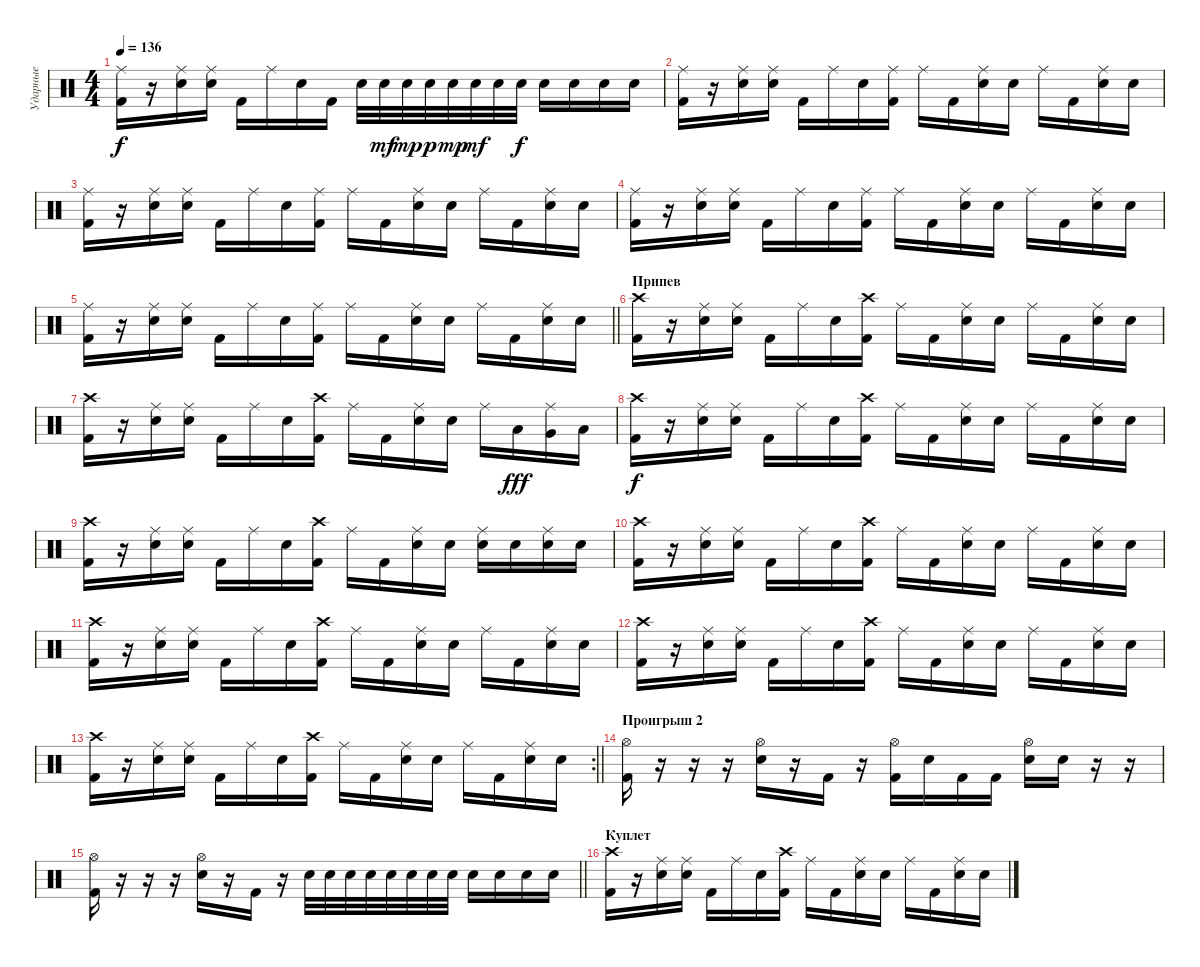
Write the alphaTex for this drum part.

\track ("Ударные" "Ударные") {instrument percussion}
\staff {score}
\articulation defaults
\ts (4 4)
\tempo 136
\clef neutral
\ks c
("Kick (hit) 2" "Ride (middle)").16{dy f} r.16 ("Electric Snare (hit)" "Ride (middle)").16 ("Electric Snare (hit)" "Ride (middle)").16 "Kick (hit) 2".16 "Ride (middle)".16 "Electric Snare (hit)".16 "Kick (hit) 2".16 "Electric Snare (hit)".32 "Electric Snare (hit)".32{dy mf} "Electric Snare (hit)".32{dy mp} "Electric Snare (hit)".32{dy p} "Electric Snare (hit)".32{dy mp} "Electric Snare (hit)".32{dy mf} "Electric Snare (hit)".32 "Electric Snare (hit)".32{dy f} "Electric Snare (hit)".16 "Electric Snare (hit)".16 "Electric Snare (hit)".16 "Electric Snare (hit)".16 |
("Kick (hit) 2" "Ride (middle)").16 r.16 ("Electric Snare (hit)" "Ride (middle)").16 ("Electric Snare (hit)" "Ride (middle)").16 "Kick (hit) 2".16 "Ride (middle)".16 "Electric Snare (hit)".16 ("Kick (hit) 2" "Ride (middle)").16 "Ride (middle)".16 "Kick (hit) 2".16 ("Electric Snare (hit)" "Ride (middle)").16 "Electric Snare (hit)".16 "Ride (middle)".16 "Kick (hit) 2".16 ("Electric Snare (hit)" "Ride (middle)").16 "Electric Snare (hit)".16 |
("Kick (hit) 2" "Ride (middle)").16 r.16 ("Electric Snare (hit)" "Ride (middle)").16 ("Electric Snare (hit)" "Ride (middle)").16 "Kick (hit) 2".16 "Ride (middle)".16 "Electric Snare (hit)".16 ("Kick (hit) 2" "Ride (middle)").16 "Ride (middle)".16 "Kick (hit) 2".16 ("Electric Snare (hit)" "Ride (middle)").16 "Electric Snare (hit)".16 "Ride (middle)".16 "Kick (hit) 2".16 ("Electric Snare (hit)" "Ride (middle)").16 "Electric Snare (hit)".16 |
("Kick (hit) 2" "Ride (middle)").16 r.16 ("Electric Snare (hit)" "Ride (middle)").16 ("Electric Snare (hit)" "Ride (middle)").16 "Kick (hit) 2".16 "Ride (middle)".16 "Electric Snare (hit)".16 ("Kick (hit) 2" "Ride (middle)").16 "Ride (middle)".16 "Kick (hit) 2".16 ("Electric Snare (hit)" "Ride (middle)").16 "Electric Snare (hit)".16 "Ride (middle)".16 "Kick (hit) 2".16 ("Electric Snare (hit)" "Ride (middle)").16 "Electric Snare (hit)".16 |
\barLineRight lightlight
("Kick (hit) 2" "Ride (middle)").16 r.16 ("Electric Snare (hit)" "Ride (middle)").16 ("Electric Snare (hit)" "Ride (middle)").16 "Kick (hit) 2".16 "Ride (middle)".16 "Electric Snare (hit)".16 ("Kick (hit) 2" "Ride (middle)").16 "Ride (middle)".16 "Kick (hit) 2".16 ("Electric Snare (hit)" "Ride (middle)").16 "Electric Snare (hit)".16 "Ride (middle)".16 "Kick (hit) 2".16 ("Electric Snare (hit)" "Ride (middle)").16 "Electric Snare (hit)".16 |
\section ("" "Припев")
("Kick (hit) 2" "Crash high (hit)").16 r.16 ("Electric Snare (hit)" "Ride (middle)").16 ("Electric Snare (hit)" "Ride (middle)").16 "Kick (hit) 2".16 "Ride (middle)".16 "Electric Snare (hit)".16 ("Kick (hit) 2" "Crash high (hit)").16 "Ride (middle)".16 "Kick (hit) 2".16 ("Electric Snare (hit)" "Ride (middle)").16 "Electric Snare (hit)".16 "Ride (middle)".16 "Kick (hit) 2".16 ("Electric Snare (hit)" "Ride (middle)").16 "Electric Snare (hit)".16 |
("Kick (hit) 2" "Crash high (hit)").16 r.16 ("Electric Snare (hit)" "Ride (middle)").16 ("Electric Snare (hit)" "Ride (middle)").16 "Kick (hit) 2".16 "Ride (middle)".16 "Electric Snare (hit)".16 ("Kick (hit) 2" "Crash high (hit)").16 "Ride (middle)".16 "Kick (hit) 2".16 ("Electric Snare (hit)" "Ride (middle)").16 "Electric Snare (hit)".16 "Ride (middle)".16 "Low Tom (hit)".16{dy fff} ("Very Low Tom (hit)" "Ride (middle)").16 "Low Floor Tom (hit)".16 |
("Kick (hit) 2" "Crash high (hit)").16{dy f} r.16 ("Electric Snare (hit)" "Ride (middle)").16 ("Electric Snare (hit)" "Ride (middle)").16 "Kick (hit) 2".16 "Ride (middle)".16 "Electric Snare (hit)".16 ("Kick (hit) 2" "Crash high (hit)").16 "Ride (middle)".16 "Kick (hit) 2".16 ("Electric Snare (hit)" "Ride (middle)").16 "Electric Snare (hit)".16 "Ride (middle)".16 "Kick (hit) 2".16 ("Electric Snare (hit)" "Ride (middle)").16 "Electric Snare (hit)".16 |
("Kick (hit) 2" "Crash high (hit)").16 r.16 ("Electric Snare (hit)" "Ride (middle)").16 ("Electric Snare (hit)" "Ride (middle)").16 "Kick (hit) 2".16 "Ride (middle)".16 "Electric Snare (hit)".16 ("Kick (hit) 2" "Crash high (hit)").16 "Ride (middle)".16 "Kick (hit) 2".16 ("Electric Snare (hit)" "Ride (middle)").16 "Electric Snare (hit)".16 ("Electric Snare (hit)" "Ride (middle)").16 "Electric Snare (hit)".16 ("Electric Snare (hit)" "Ride (middle)").16 "Electric Snare (hit)".16 |
("Kick (hit) 2" "Crash high (hit)").16 r.16 ("Electric Snare (hit)" "Ride (middle)").16 ("Electric Snare (hit)" "Ride (middle)").16 "Kick (hit) 2".16 "Ride (middle)".16 "Electric Snare (hit)".16 ("Kick (hit) 2" "Crash high (hit)").16 "Ride (middle)".16 "Kick (hit) 2".16 ("Electric Snare (hit)" "Ride (middle)").16 "Electric Snare (hit)".16 "Ride (middle)".16 "Kick (hit) 2".16 ("Electric Snare (hit)" "Ride (middle)").16 "Electric Snare (hit)".16 |
("Kick (hit) 2" "Crash high (hit)").16 r.16 ("Electric Snare (hit)" "Ride (middle)").16 ("Electric Snare (hit)" "Ride (middle)").16 "Kick (hit) 2".16 "Ride (middle)".16 "Electric Snare (hit)".16 ("Kick (hit) 2" "Crash high (hit)").16 "Ride (middle)".16 "Kick (hit) 2".16 ("Electric Snare (hit)" "Ride (middle)").16 "Electric Snare (hit)".16 "Ride (middle)".16 "Kick (hit) 2".16 ("Electric Snare (hit)" "Ride (middle)").16 "Electric Snare (hit)".16 |
("Kick (hit) 2" "Crash high (hit)").16 r.16 ("Electric Snare (hit)" "Ride (middle)").16 ("Electric Snare (hit)" "Ride (middle)").16 "Kick (hit) 2".16 "Ride (middle)".16 "Electric Snare (hit)".16 ("Kick (hit) 2" "Crash high (hit)").16 "Ride (middle)".16 "Kick (hit) 2".16 ("Electric Snare (hit)" "Ride (middle)").16 "Electric Snare (hit)".16 "Ride (middle)".16 "Kick (hit) 2".16 ("Electric Snare (hit)" "Ride (middle)").16 "Electric Snare (hit)".16 |
\rc 2
\barLineRight lightlight
("Kick (hit) 2" "Crash high (hit)").16 r.16 ("Electric Snare (hit)" "Ride (middle)").16 ("Electric Snare (hit)" "Ride (middle)").16 "Kick (hit) 2".16 "Ride (middle)".16 "Electric Snare (hit)".16 ("Kick (hit) 2" "Crash high (hit)").16 "Ride (middle)".16 "Kick (hit) 2".16 ("Electric Snare (hit)" "Ride (middle)").16 "Electric Snare (hit)".16 "Ride (middle)".16 "Kick (hit) 2".16 ("Electric Snare (hit)" "Ride (middle)").16 "Electric Snare (hit)".16 |
\section ("" "Проигрыш 2")
("Kick (hit) 2" "Hi-Hat (open)").16 r.16 r.16 r.16 ("Electric Snare (hit)" "Hi-Hat (open)").16 r.16 "Kick (hit) 2".16 r.16 ("Kick (hit) 2" "Hi-Hat (open)").16 "Electric Snare (hit)".16 "Kick (hit) 2".16 "Kick (hit) 2".16 ("Electric Snare (hit)" "Hi-Hat (open)").16 "Electric Snare (hit)".16 r.16 r.16 |
\barLineRight lightlight
("Kick (hit) 2" "Hi-Hat (open)").16 r.16 r.16 r.16 ("Electric Snare (hit)" "Hi-Hat (open)").16 r.16 "Kick (hit) 2".16 r.16 "Electric Snare (hit)".32 "Electric Snare (hit)".32 "Electric Snare (hit)".32 "Electric Snare (hit)".32 "Electric Snare (hit)".32 "Electric Snare (hit)".32 "Electric Snare (hit)".32 "Electric Snare (hit)".32 "Electric Snare (hit)".16 "Electric Snare (hit)".16 "Electric Snare (hit)".16 "Electric Snare (hit)".16 |
\section ("" "Куплет")
("Kick (hit) 2" "Crash high (hit)").16 r.16 ("Electric Snare (hit)" "Ride (middle)").16 ("Electric Snare (hit)" "Ride (middle)").16 "Kick (hit) 2".16 "Ride (middle)".16 "Electric Snare (hit)".16 ("Kick (hit) 2" "Crash high (hit)").16 "Ride (middle)".16 "Kick (hit) 2".16 ("Electric Snare (hit)" "Ride (middle)").16 "Electric Snare (hit)".16 "Ride (middle)".16 "Kick (hit) 2".16 ("Electric Snare (hit)" "Ride (middle)").16 "Electric Snare (hit)".16
